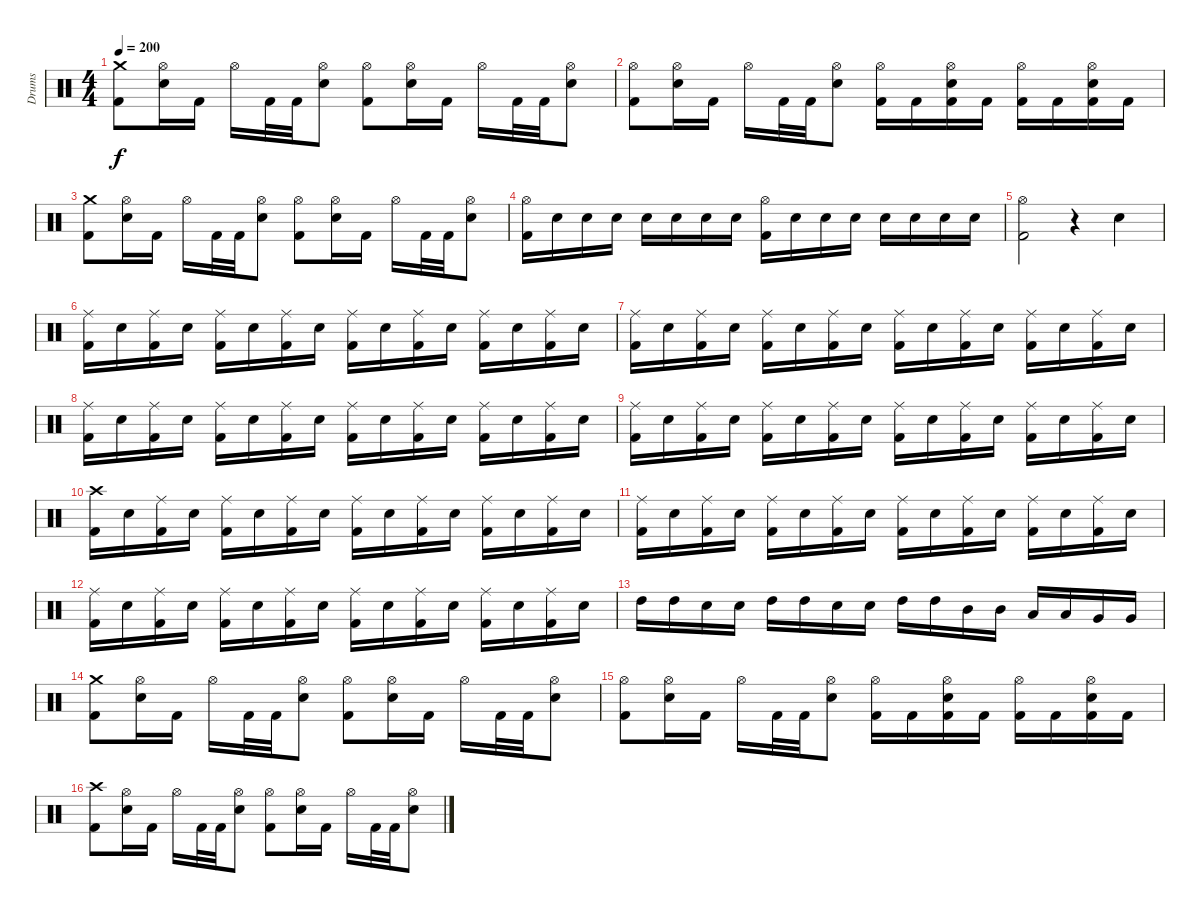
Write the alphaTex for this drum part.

\track ("Drums" "Drums") {instrument percussion}
\staff {score}
\articulation defaults
\ts (4 4)
\tempo 200
\clef neutral
\ks c
("Crash medium (hit)" "Kick (hit) 2").8{dy f} ("Hi-Hat (open)" "Electric Snare (hit)").16 "Kick (hit) 2".16 "Hi-Hat (open)".16 "Kick (hit) 2".32 "Kick (hit) 2".32 ("Hi-Hat (open)" "Electric Snare (hit)").8 ("Hi-Hat (open)" "Kick (hit) 2").8 ("Hi-Hat (open)" "Electric Snare (hit)").16 "Kick (hit) 2".16 "Hi-Hat (open)".16 "Kick (hit) 2".32 "Kick (hit) 2".32 ("Hi-Hat (open)" "Electric Snare (hit)").8 |
("Hi-Hat (open)" "Kick (hit) 2").8 ("Hi-Hat (open)" "Electric Snare (hit)").16 "Kick (hit) 2".16 "Hi-Hat (open)".16 "Kick (hit) 2".32 "Kick (hit) 2".32 ("Hi-Hat (open)" "Electric Snare (hit)").8 ("Hi-Hat (open)" "Kick (hit) 2").16 "Kick (hit) 2".16 ("Hi-Hat (open)" "Electric Snare (hit)" "Kick (hit) 2").16 "Kick (hit) 2".16 ("Hi-Hat (open)" "Kick (hit) 2").16 "Kick (hit) 2".16 ("Hi-Hat (open)" "Electric Snare (hit)" "Kick (hit) 2").16 "Kick (hit) 2".16 |
("Crash medium (hit)" "Kick (hit) 2").8 ("Hi-Hat (open)" "Electric Snare (hit)").16 "Kick (hit) 2".16 "Hi-Hat (open)".16 "Kick (hit) 2".32 "Kick (hit) 2".32 ("Hi-Hat (open)" "Electric Snare (hit)").8 ("Hi-Hat (open)" "Kick (hit) 2").8 ("Hi-Hat (open)" "Electric Snare (hit)").16 "Kick (hit) 2".16 "Hi-Hat (open)".16 "Kick (hit) 2".32 "Kick (hit) 2".32 ("Hi-Hat (open)" "Electric Snare (hit)").8 |
("Hi-Hat (open)" "Kick (hit) 2").16 "Electric Snare (hit)".16 "Electric Snare (hit)".16 "Electric Snare (hit)".16 "Electric Snare (hit)".16 "Electric Snare (hit)".16 "Electric Snare (hit)".16 "Electric Snare (hit)".16 ("Hi-Hat (open)" "Kick (hit) 2").16 "Electric Snare (hit)".16 "Electric Snare (hit)".16 "Electric Snare (hit)".16 "Electric Snare (hit)".16 "Electric Snare (hit)".16 "Electric Snare (hit)".16 "Electric Snare (hit)".16 |
("Hi-Hat (open)" "Kick (hit) 2").2 r.4 "Electric Snare (hit)".4 |
("Ride (middle)" "Kick (hit) 2").16 "Electric Snare (hit)".16 ("Ride (middle)" "Kick (hit) 2").16 "Electric Snare (hit)".16 ("Ride (middle)" "Kick (hit) 2").16 "Electric Snare (hit)".16 ("Ride (middle)" "Kick (hit) 2").16 "Electric Snare (hit)".16 ("Ride (middle)" "Kick (hit) 2").16 "Electric Snare (hit)".16 ("Ride (middle)" "Kick (hit) 2").16 "Electric Snare (hit)".16 ("Ride (middle)" "Kick (hit) 2").16 "Electric Snare (hit)".16 ("Ride (middle)" "Kick (hit) 2").16 "Electric Snare (hit)".16 |
("Ride (middle)" "Kick (hit) 2").16 "Electric Snare (hit)".16 ("Ride (middle)" "Kick (hit) 2").16 "Electric Snare (hit)".16 ("Ride (middle)" "Kick (hit) 2").16 "Electric Snare (hit)".16 ("Ride (middle)" "Kick (hit) 2").16 "Electric Snare (hit)".16 ("Ride (middle)" "Kick (hit) 2").16 "Electric Snare (hit)".16 ("Ride (middle)" "Kick (hit) 2").16 "Electric Snare (hit)".16 ("Ride (middle)" "Kick (hit) 2").16 "Electric Snare (hit)".16 ("Ride (middle)" "Kick (hit) 2").16 "Electric Snare (hit)".16 |
("Ride (middle)" "Kick (hit) 2").16 "Electric Snare (hit)".16 ("Ride (middle)" "Kick (hit) 2").16 "Electric Snare (hit)".16 ("Ride (middle)" "Kick (hit) 2").16 "Electric Snare (hit)".16 ("Ride (middle)" "Kick (hit) 2").16 "Electric Snare (hit)".16 ("Ride (middle)" "Kick (hit) 2").16 "Electric Snare (hit)".16 ("Ride (middle)" "Kick (hit) 2").16 "Electric Snare (hit)".16 ("Ride (middle)" "Kick (hit) 2").16 "Electric Snare (hit)".16 ("Ride (middle)" "Kick (hit) 2").16 "Electric Snare (hit)".16 |
("Ride (middle)" "Kick (hit) 2").16 "Electric Snare (hit)".16 ("Ride (middle)" "Kick (hit) 2").16 "Electric Snare (hit)".16 ("Ride (middle)" "Kick (hit) 2").16 "Electric Snare (hit)".16 ("Ride (middle)" "Kick (hit) 2").16 "Electric Snare (hit)".16 ("Ride (middle)" "Kick (hit) 2").16 "Electric Snare (hit)".16 ("Ride (middle)" "Kick (hit) 2").16 "Electric Snare (hit)".16 ("Ride (middle)" "Kick (hit) 2").16 "Electric Snare (hit)".16 ("Ride (middle)" "Kick (hit) 2").16 "Electric Snare (hit)".16 |
("Crash high (hit)" "Kick (hit) 2").16 "Electric Snare (hit)".16 ("Ride (middle)" "Kick (hit) 2").16 "Electric Snare (hit)".16 ("Ride (middle)" "Kick (hit) 2").16 "Electric Snare (hit)".16 ("Ride (middle)" "Kick (hit) 2").16 "Electric Snare (hit)".16 ("Ride (middle)" "Kick (hit) 2").16 "Electric Snare (hit)".16 ("Ride (middle)" "Kick (hit) 2").16 "Electric Snare (hit)".16 ("Ride (middle)" "Kick (hit) 2").16 "Electric Snare (hit)".16 ("Ride (middle)" "Kick (hit) 2").16 "Electric Snare (hit)".16 |
("Ride (middle)" "Kick (hit) 2").16 "Electric Snare (hit)".16 ("Ride (middle)" "Kick (hit) 2").16 "Electric Snare (hit)".16 ("Ride (middle)" "Kick (hit) 2").16 "Electric Snare (hit)".16 ("Ride (middle)" "Kick (hit) 2").16 "Electric Snare (hit)".16 ("Ride (middle)" "Kick (hit) 2").16 "Electric Snare (hit)".16 ("Ride (middle)" "Kick (hit) 2").16 "Electric Snare (hit)".16 ("Ride (middle)" "Kick (hit) 2").16 "Electric Snare (hit)".16 ("Ride (middle)" "Kick (hit) 2").16 "Electric Snare (hit)".16 |
("Ride (middle)" "Kick (hit) 2").16 "Electric Snare (hit)".16 ("Ride (middle)" "Kick (hit) 2").16 "Electric Snare (hit)".16 ("Ride (middle)" "Kick (hit) 2").16 "Electric Snare (hit)".16 ("Ride (middle)" "Kick (hit) 2").16 "Electric Snare (hit)".16 ("Ride (middle)" "Kick (hit) 2").16 "Electric Snare (hit)".16 ("Ride (middle)" "Kick (hit) 2").16 "Electric Snare (hit)".16 ("Ride (middle)" "Kick (hit) 2").16 "Electric Snare (hit)".16 ("Ride (middle)" "Kick (hit) 2").16 "Electric Snare (hit)".16 |
"High Tom (hit)".16 "High Tom (hit)".16 "Electric Snare (hit)".16 "Electric Snare (hit)".16 "High Tom (hit)".16 "High Tom (hit)".16 "Electric Snare (hit)".16 "Electric Snare (hit)".16 "High Tom (hit)".16 "High Tom (hit)".16 "Mid Tom (hit)".16 "Mid Tom (hit)".16 "Low Tom (hit)".16 "Low Tom (hit)".16 "Very Low Tom (hit)".16 "Very Low Tom (hit)".16 |
("Crash medium (hit)" "Kick (hit) 2").8 ("Hi-Hat (open)" "Electric Snare (hit)").16 "Kick (hit) 2".16 "Hi-Hat (open)".16 "Kick (hit) 2".32 "Kick (hit) 2".32 ("Hi-Hat (open)" "Electric Snare (hit)").8 ("Hi-Hat (open)" "Kick (hit) 2").8 ("Hi-Hat (open)" "Electric Snare (hit)").16 "Kick (hit) 2".16 "Hi-Hat (open)".16 "Kick (hit) 2".32 "Kick (hit) 2".32 ("Hi-Hat (open)" "Electric Snare (hit)").8 |
("Hi-Hat (open)" "Kick (hit) 2").8 ("Hi-Hat (open)" "Electric Snare (hit)").16 "Kick (hit) 2".16 "Hi-Hat (open)".16 "Kick (hit) 2".32 "Kick (hit) 2".32 ("Hi-Hat (open)" "Electric Snare (hit)").8 ("Hi-Hat (open)" "Kick (hit) 2").16 "Kick (hit) 2".16 ("Hi-Hat (open)" "Electric Snare (hit)" "Kick (hit) 2").16 "Kick (hit) 2".16 ("Hi-Hat (open)" "Kick (hit) 2").16 "Kick (hit) 2".16 ("Hi-Hat (open)" "Electric Snare (hit)" "Kick (hit) 2").16 "Kick (hit) 2".16 |
("Crash high (hit)" "Kick (hit) 2").8 ("Hi-Hat (open)" "Electric Snare (hit)").16 "Kick (hit) 2".16 "Hi-Hat (open)".16 "Kick (hit) 2".32 "Kick (hit) 2".32 ("Hi-Hat (open)" "Electric Snare (hit)").8 ("Hi-Hat (open)" "Kick (hit) 2").8 ("Hi-Hat (open)" "Electric Snare (hit)").16 "Kick (hit) 2".16 "Hi-Hat (open)".16 "Kick (hit) 2".32 "Kick (hit) 2".32 ("Hi-Hat (open)" "Electric Snare (hit)").8
